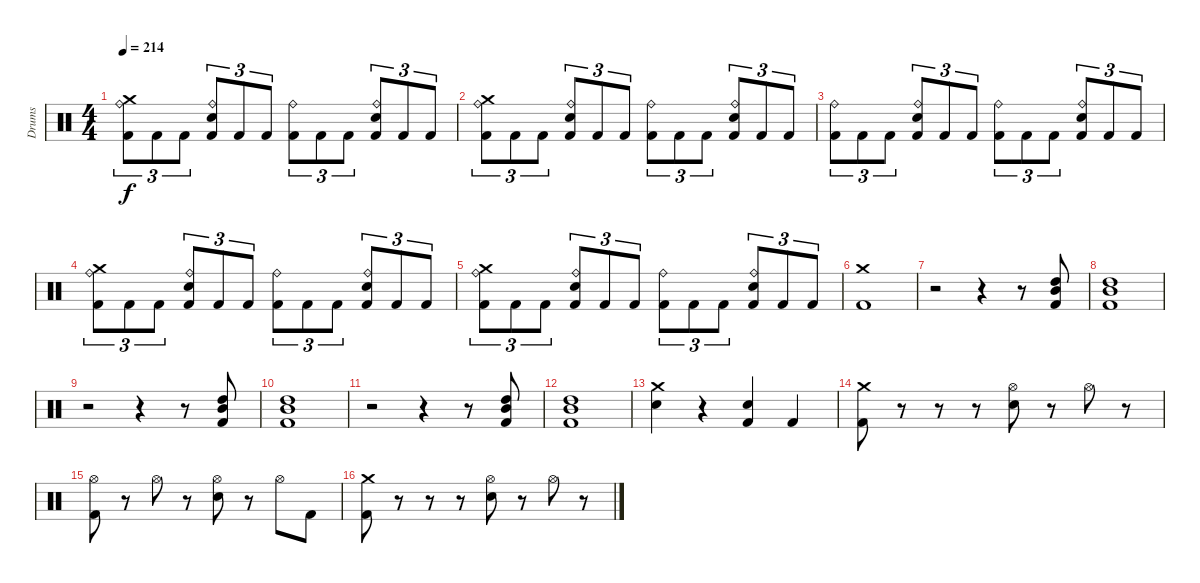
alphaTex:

\track ("Drums" "Drums") {instrument percussion}
\staff {score}
\articulation defaults
\ts (4 4)
\tempo 214
\clef neutral
\ks c
("Kick (hit) 2" "Ride (bell)" "Crash medium (hit)").8{tu (3 2) dy f} "Kick (hit) 2".8{tu (3 2)} "Kick (hit) 2".8{tu (3 2)} ("Kick (hit) 2" "Ride (bell)" "Snare (hit) 2").8{tu (3 2)} "Kick (hit) 2".8{tu (3 2)} "Kick (hit) 2".8{tu (3 2)} ("Kick (hit) 2" "Ride (bell)").8{tu (3 2)} "Kick (hit) 2".8{tu (3 2)} "Kick (hit) 2".8{tu (3 2)} ("Kick (hit) 2" "Ride (bell)" "Snare (hit) 2").8{tu (3 2)} "Kick (hit) 2".8{tu (3 2)} "Kick (hit) 2".8{tu (3 2)} |
("Kick (hit) 2" "Ride (bell)" "Crash medium (hit)").8{tu (3 2)} "Kick (hit) 2".8{tu (3 2)} "Kick (hit) 2".8{tu (3 2)} ("Kick (hit) 2" "Ride (bell)" "Snare (hit) 2").8{tu (3 2)} "Kick (hit) 2".8{tu (3 2)} "Kick (hit) 2".8{tu (3 2)} ("Kick (hit) 2" "Ride (bell)").8{tu (3 2)} "Kick (hit) 2".8{tu (3 2)} "Kick (hit) 2".8{tu (3 2)} ("Kick (hit) 2" "Ride (bell)" "Snare (hit) 2").8{tu (3 2)} "Kick (hit) 2".8{tu (3 2)} "Kick (hit) 2".8{tu (3 2)} |
("Kick (hit) 2" "Ride (bell)").8{tu (3 2)} "Kick (hit) 2".8{tu (3 2)} "Kick (hit) 2".8{tu (3 2)} ("Kick (hit) 2" "Ride (bell)" "Snare (hit) 2").8{tu (3 2)} "Kick (hit) 2".8{tu (3 2)} "Kick (hit) 2".8{tu (3 2)} ("Kick (hit) 2" "Ride (bell)").8{tu (3 2)} "Kick (hit) 2".8{tu (3 2)} "Kick (hit) 2".8{tu (3 2)} ("Kick (hit) 2" "Ride (bell)" "Snare (hit) 2").8{tu (3 2)} "Kick (hit) 2".8{tu (3 2)} "Kick (hit) 2".8{tu (3 2)} |
("Kick (hit) 2" "Ride (bell)" "Crash medium (hit)").8{tu (3 2)} "Kick (hit) 2".8{tu (3 2)} "Kick (hit) 2".8{tu (3 2)} ("Kick (hit) 2" "Ride (bell)" "Snare (hit) 2").8{tu (3 2)} "Kick (hit) 2".8{tu (3 2)} "Kick (hit) 2".8{tu (3 2)} ("Kick (hit) 2" "Ride (bell)").8{tu (3 2)} "Kick (hit) 2".8{tu (3 2)} "Kick (hit) 2".8{tu (3 2)} ("Kick (hit) 2" "Ride (bell)" "Snare (hit) 2").8{tu (3 2)} "Kick (hit) 2".8{tu (3 2)} "Kick (hit) 2".8{tu (3 2)} |
("Kick (hit) 2" "Ride (bell)" "Crash medium (hit)").8{tu (3 2)} "Kick (hit) 2".8{tu (3 2)} "Kick (hit) 2".8{tu (3 2)} ("Kick (hit) 2" "Ride (bell)" "Snare (hit) 2").8{tu (3 2)} "Kick (hit) 2".8{tu (3 2)} "Kick (hit) 2".8{tu (3 2)} ("Kick (hit) 2" "Ride (bell)").8{tu (3 2)} "Kick (hit) 2".8{tu (3 2)} "Kick (hit) 2".8{tu (3 2)} ("Kick (hit) 2" "Ride (bell)" "Snare (hit) 2").8{tu (3 2)} "Kick (hit) 2".8{tu (3 2)} "Kick (hit) 2".8{tu (3 2)} |
("Crash medium (hit)" "Kick (hit) 2").1 |
r.2 r.4 r.8 ("Kick (hit) 2" "High Tom (hit)" "Mid Tom (hit)").8 |
("Kick (hit) 2" "High Tom (hit)" "Mid Tom (hit)").1 |
r.2 r.4 r.8 ("Kick (hit) 2" "High Tom (hit)" "Mid Tom (hit)").8 |
("Kick (hit) 2" "High Tom (hit)" "Mid Tom (hit)").1 |
r.2 r.4 r.8 ("Kick (hit) 2" "High Tom (hit)" "Mid Tom (hit)").8 |
("Kick (hit) 2" "High Tom (hit)" "Mid Tom (hit)").1 |
("Snare (hit) 2" "Crash medium (hit)").4 r.4 ("Snare (hit) 2" "Kick (hit) 2").4 "Kick (hit) 2".4 |
("Crash medium (hit)" "Kick (hit) 2").8 r.8 r.8 r.8 ("Snare (hit) 2" "Hi-Hat (open)").8 r.8 "Hi-Hat (open)".8 r.8 |
("Kick (hit) 2" "Hi-Hat (open)").8 r.8 "Hi-Hat (open)".8 r.8 ("Snare (hit) 2" "Hi-Hat (open)").8 r.8 "Hi-Hat (open)".8 "Kick (hit) 2".8 |
("Crash medium (hit)" "Kick (hit) 2").8 r.8 r.8 r.8 ("Snare (hit) 2" "Hi-Hat (open)").8 r.8 "Hi-Hat (open)".8 r.8
